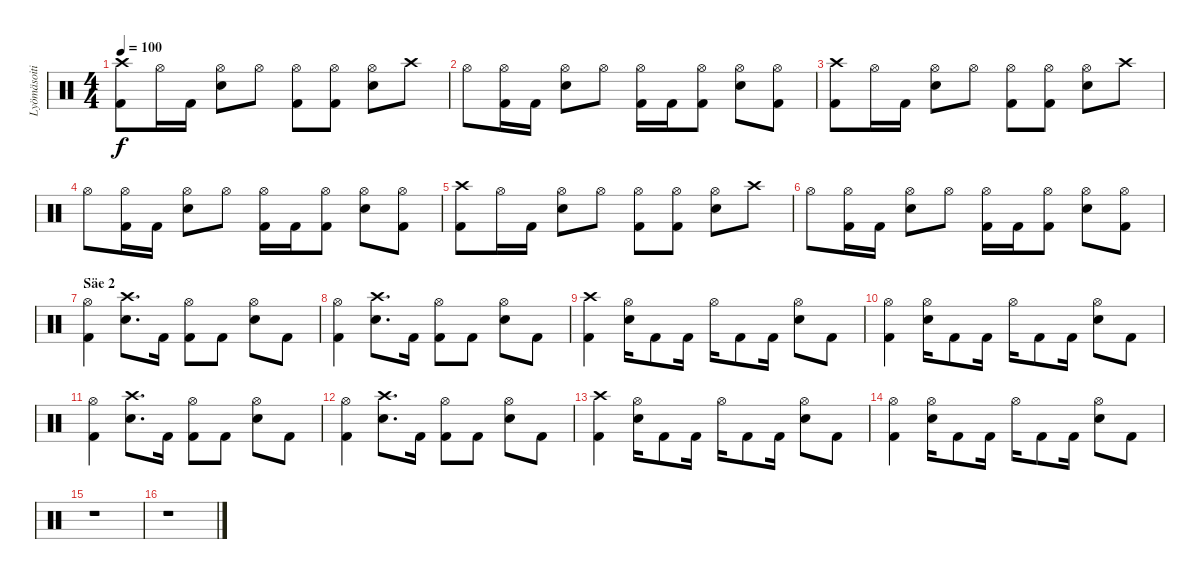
\track ("Lyömäsoitin" "Lyömäsoiti") {instrument percussion}
\staff {score}
\articulation defaults
\ts (4 4)
\tempo 100
\clef neutral
\ks c
("Crash high (hit)" "Kick (hit) 2").8{dy f} "Hi-Hat (open)".16 "Kick (hit) 2".16 ("Hi-Hat (open)" "Snare (hit) 2").8 "Hi-Hat (open)".8 ("Hi-Hat (open)" "Kick (hit) 2").8 ("Hi-Hat (open)" "Kick (hit) 2").8 ("Hi-Hat (open)" "Snare (hit) 2").8 "Crash high (hit)".8 |
"Hi-Hat (open)".8 ("Hi-Hat (open)" "Kick (hit) 2").16 "Kick (hit) 2".16 ("Hi-Hat (open)" "Snare (hit) 2").8 "Hi-Hat (open)".8 ("Hi-Hat (open)" "Kick (hit) 2").16 "Kick (hit) 2".16 ("Hi-Hat (open)" "Kick (hit) 2").8 ("Hi-Hat (open)" "Snare (hit) 2").8 ("Hi-Hat (open)" "Kick (hit) 2").8 |
("Crash high (hit)" "Kick (hit) 2").8 "Hi-Hat (open)".16 "Kick (hit) 2".16 ("Hi-Hat (open)" "Snare (hit) 2").8 "Hi-Hat (open)".8 ("Hi-Hat (open)" "Kick (hit) 2").8 ("Hi-Hat (open)" "Kick (hit) 2").8 ("Hi-Hat (open)" "Snare (hit) 2").8 "Crash high (hit)".8 |
"Hi-Hat (open)".8 ("Hi-Hat (open)" "Kick (hit) 2").16 "Kick (hit) 2".16 ("Hi-Hat (open)" "Snare (hit) 2").8 "Hi-Hat (open)".8 ("Hi-Hat (open)" "Kick (hit) 2").16 "Kick (hit) 2".16 ("Hi-Hat (open)" "Kick (hit) 2").8 ("Hi-Hat (open)" "Snare (hit) 2").8 ("Hi-Hat (open)" "Kick (hit) 2").8 |
("Crash high (hit)" "Kick (hit) 2").8 "Hi-Hat (open)".16 "Kick (hit) 2".16 ("Hi-Hat (open)" "Snare (hit) 2").8 "Hi-Hat (open)".8 ("Hi-Hat (open)" "Kick (hit) 2").8 ("Hi-Hat (open)" "Kick (hit) 2").8 ("Hi-Hat (open)" "Snare (hit) 2").8 "Crash high (hit)".8 |
"Hi-Hat (open)".8 ("Hi-Hat (open)" "Kick (hit) 2").16 "Kick (hit) 2".16 ("Hi-Hat (open)" "Snare (hit) 2").8 "Hi-Hat (open)".8 ("Hi-Hat (open)" "Kick (hit) 2").16 "Kick (hit) 2".16 ("Hi-Hat (open)" "Kick (hit) 2").8 ("Hi-Hat (open)" "Snare (hit) 2").8 ("Hi-Hat (open)" "Kick (hit) 2").8 |
\section ("" "Säe 2")
("Hi-Hat (open)" "Kick (hit) 2").4 ("Crash high (hit)" "Snare (hit) 2").8{d} "Kick (hit) 2".16 ("Hi-Hat (open)" "Kick (hit) 2").8 "Kick (hit) 2".8 ("Hi-Hat (open)" "Snare (hit) 2").8 "Kick (hit) 2".8 |
("Hi-Hat (open)" "Kick (hit) 2").4 ("Crash high (hit)" "Snare (hit) 2").8{d} "Kick (hit) 2".16 ("Hi-Hat (open)" "Kick (hit) 2").8 "Kick (hit) 2".8 ("Hi-Hat (open)" "Snare (hit) 2").8 "Kick (hit) 2".8 |
("Crash high (hit)" "Kick (hit) 2").4 ("Hi-Hat (open)" "Snare (hit) 2").16 "Kick (hit) 2".8 "Kick (hit) 2".16 "Hi-Hat (open)".16 "Kick (hit) 2".8 "Kick (hit) 2".16 ("Hi-Hat (open)" "Snare (hit) 2").8 "Kick (hit) 2".8 |
("Hi-Hat (open)" "Kick (hit) 2").4 ("Hi-Hat (open)" "Snare (hit) 2").16 "Kick (hit) 2".8 "Kick (hit) 2".16 "Hi-Hat (open)".16 "Kick (hit) 2".8 "Kick (hit) 2".16 ("Hi-Hat (open)" "Snare (hit) 2").8 "Kick (hit) 2".8 |
("Hi-Hat (open)" "Kick (hit) 2").4 ("Crash high (hit)" "Snare (hit) 2").8{d} "Kick (hit) 2".16 ("Hi-Hat (open)" "Kick (hit) 2").8 "Kick (hit) 2".8 ("Hi-Hat (open)" "Snare (hit) 2").8 "Kick (hit) 2".8 |
("Hi-Hat (open)" "Kick (hit) 2").4 ("Crash high (hit)" "Snare (hit) 2").8{d} "Kick (hit) 2".16 ("Hi-Hat (open)" "Kick (hit) 2").8 "Kick (hit) 2".8 ("Hi-Hat (open)" "Snare (hit) 2").8 "Kick (hit) 2".8 |
("Crash high (hit)" "Kick (hit) 2").4 ("Hi-Hat (open)" "Snare (hit) 2").16 "Kick (hit) 2".8 "Kick (hit) 2".16 "Hi-Hat (open)".16 "Kick (hit) 2".8 "Kick (hit) 2".16 ("Hi-Hat (open)" "Snare (hit) 2").8 "Kick (hit) 2".8 |
("Hi-Hat (open)" "Kick (hit) 2").4 ("Hi-Hat (open)" "Snare (hit) 2").16 "Kick (hit) 2".8 "Kick (hit) 2".16 "Hi-Hat (open)".16 "Kick (hit) 2".8 "Kick (hit) 2".16 ("Hi-Hat (open)" "Snare (hit) 2").8 "Kick (hit) 2".8 |
r.1 |
r.1
